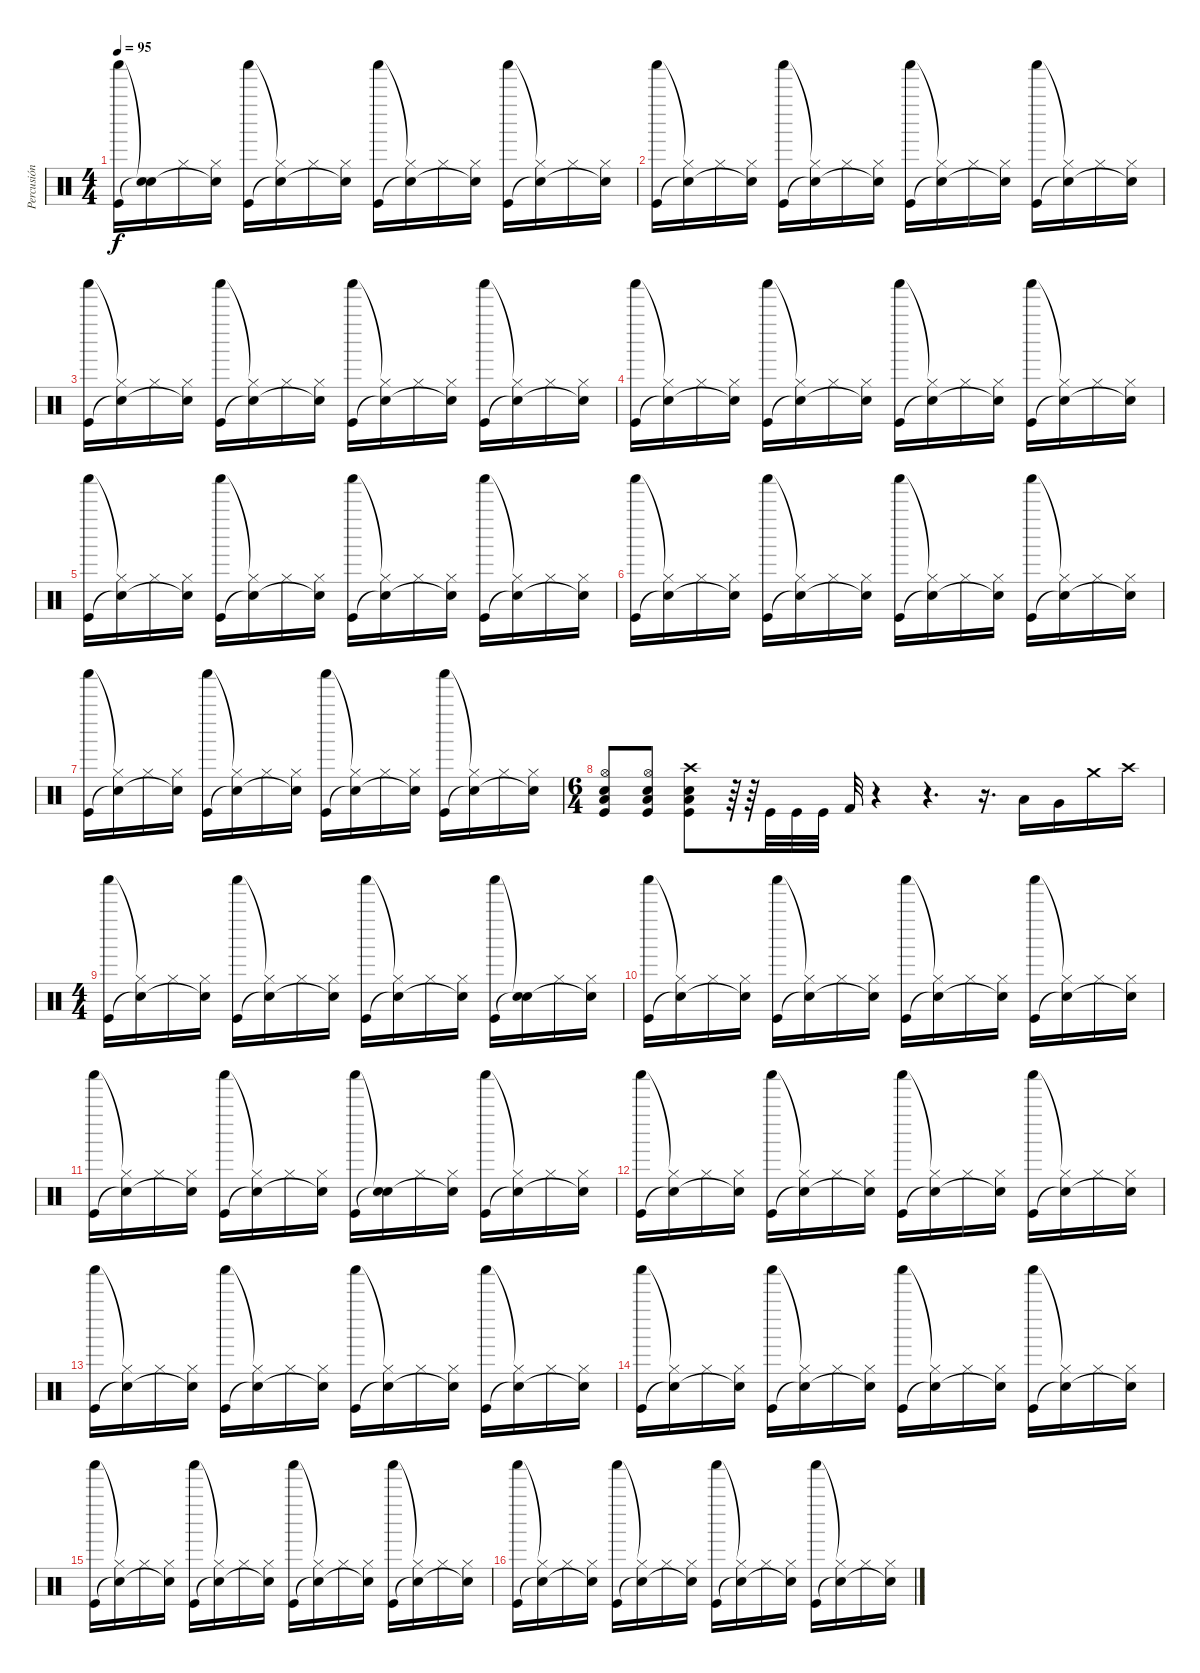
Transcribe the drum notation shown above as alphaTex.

\track ("Percusión" "Percusión") {instrument percussion}
\staff {score}
\articulation defaults
\ts (4 4)
\tempo 95
\clef neutral
\ks c
("Shaker (hit)" "Kick (hit)").16{dy f} ("Snare (hit)"{t} "Snare (hit)"{t}).16 "Hi-Hat (closed)".16 ("Hi-Hat (closed)" "Snare (hit)"{t}).16 ("Shaker (hit)" "Kick (hit)").16 ("Hi-Hat (closed)"{t} "Snare (hit)"{t}).16 "Hi-Hat (closed)".16 ("Hi-Hat (closed)" "Snare (hit)"{t}).16 ("Shaker (hit)" "Kick (hit)").16 ("Hi-Hat (closed)"{t} "Snare (hit)"{t}).16 "Hi-Hat (closed)".16 ("Hi-Hat (closed)" "Snare (hit)"{t}).16 ("Shaker (hit)" "Kick (hit)").16 ("Hi-Hat (closed)"{t} "Snare (hit)"{t}).16 "Hi-Hat (closed)".16 ("Hi-Hat (closed)" "Snare (hit)"{t}).16 |
("Shaker (hit)" "Kick (hit)").16 ("Hi-Hat (closed)"{t} "Snare (hit)"{t}).16 "Hi-Hat (closed)".16 ("Hi-Hat (closed)" "Snare (hit)"{t}).16 ("Shaker (hit)" "Kick (hit)").16 ("Hi-Hat (closed)"{t} "Snare (hit)"{t}).16 "Hi-Hat (closed)".16 ("Hi-Hat (closed)" "Snare (hit)"{t}).16 ("Shaker (hit)" "Kick (hit)").16 ("Hi-Hat (closed)"{t} "Snare (hit)"{t}).16 "Hi-Hat (closed)".16 ("Hi-Hat (closed)" "Snare (hit)"{t}).16 ("Shaker (hit)" "Kick (hit)").16 ("Hi-Hat (closed)"{t} "Snare (hit)"{t}).16 "Hi-Hat (closed)".16 ("Hi-Hat (closed)" "Snare (hit)"{t}).16 |
("Shaker (hit)" "Kick (hit)").16 ("Hi-Hat (closed)"{t} "Snare (hit)"{t}).16 "Hi-Hat (closed)".16 ("Hi-Hat (closed)" "Snare (hit)"{t}).16 ("Shaker (hit)" "Kick (hit)").16 ("Hi-Hat (closed)"{t} "Snare (hit)"{t}).16 "Hi-Hat (closed)".16 ("Hi-Hat (closed)" "Snare (hit)"{t}).16 ("Shaker (hit)" "Kick (hit)").16 ("Hi-Hat (closed)"{t} "Snare (hit)"{t}).16 "Hi-Hat (closed)".16 ("Hi-Hat (closed)" "Snare (hit)"{t}).16 ("Shaker (hit)" "Kick (hit)").16 ("Hi-Hat (closed)"{t} "Snare (hit)"{t}).16 "Hi-Hat (closed)".16 ("Hi-Hat (closed)" "Snare (hit)"{t}).16 |
("Shaker (hit)" "Kick (hit)").16 ("Hi-Hat (closed)"{t} "Snare (hit)"{t}).16 "Hi-Hat (closed)".16 ("Hi-Hat (closed)" "Snare (hit)"{t}).16 ("Shaker (hit)" "Kick (hit)").16 ("Hi-Hat (closed)"{t} "Snare (hit)"{t}).16 "Hi-Hat (closed)".16 ("Hi-Hat (closed)" "Snare (hit)"{t}).16 ("Shaker (hit)" "Kick (hit)").16 ("Hi-Hat (closed)"{t} "Snare (hit)"{t}).16 "Hi-Hat (closed)".16 ("Hi-Hat (closed)" "Snare (hit)"{t}).16 ("Shaker (hit)" "Kick (hit)").16 ("Hi-Hat (closed)"{t} "Snare (hit)"{t}).16 "Hi-Hat (closed)".16 ("Hi-Hat (closed)" "Snare (hit)"{t}).16 |
("Shaker (hit)" "Kick (hit)").16 ("Hi-Hat (closed)"{t} "Snare (hit)"{t}).16 "Hi-Hat (closed)".16 ("Hi-Hat (closed)" "Snare (hit)"{t}).16 ("Shaker (hit)" "Kick (hit)").16 ("Hi-Hat (closed)"{t} "Snare (hit)"{t}).16 "Hi-Hat (closed)".16 ("Hi-Hat (closed)" "Snare (hit)"{t}).16 ("Shaker (hit)" "Kick (hit)").16 ("Hi-Hat (closed)"{t} "Snare (hit)"{t}).16 "Hi-Hat (closed)".16 ("Hi-Hat (closed)" "Snare (hit)"{t}).16 ("Shaker (hit)" "Kick (hit)").16 ("Hi-Hat (closed)"{t} "Snare (hit)"{t}).16 "Hi-Hat (closed)".16 ("Hi-Hat (closed)" "Snare (hit)"{t}).16 |
("Shaker (hit)" "Kick (hit)").16 ("Hi-Hat (closed)"{t} "Snare (hit)"{t}).16 "Hi-Hat (closed)".16 ("Hi-Hat (closed)" "Snare (hit)"{t}).16 ("Shaker (hit)" "Kick (hit)").16 ("Hi-Hat (closed)"{t} "Snare (hit)"{t}).16 "Hi-Hat (closed)".16 ("Hi-Hat (closed)" "Snare (hit)"{t}).16 ("Shaker (hit)" "Kick (hit)").16 ("Hi-Hat (closed)"{t} "Snare (hit)"{t}).16 "Hi-Hat (closed)".16 ("Hi-Hat (closed)" "Snare (hit)"{t}).16 ("Shaker (hit)" "Kick (hit)").16 ("Hi-Hat (closed)"{t} "Snare (hit)"{t}).16 "Hi-Hat (closed)".16 ("Hi-Hat (closed)" "Snare (hit)"{t}).16 |
("Shaker (hit)" "Kick (hit)").16 ("Hi-Hat (closed)"{t} "Snare (hit)"{t}).16 "Hi-Hat (closed)".16 ("Hi-Hat (closed)" "Snare (hit)"{t}).16 ("Shaker (hit)" "Kick (hit)").16 ("Hi-Hat (closed)"{t} "Snare (hit)"{t}).16 "Hi-Hat (closed)".16 ("Hi-Hat (closed)" "Snare (hit)"{t}).16 ("Shaker (hit)" "Kick (hit)").16 ("Hi-Hat (closed)"{t} "Snare (hit)"{t}).16 "Hi-Hat (closed)".16 ("Hi-Hat (closed)" "Snare (hit)"{t}).16 ("Shaker (hit)" "Kick (hit)").16 ("Hi-Hat (closed)"{t} "Snare (hit)"{t}).16 "Hi-Hat (closed)".16 ("Hi-Hat (closed)" "Snare (hit)"{t}).16 |
\ts (6 4)
("Hi-Hat (open)" "Low Tom (hit)" "Snare (hit) 2" "Kick (hit)").8 ("Hi-Hat (open)" "Low Tom (hit)" "Snare (hit) 2" "Kick (hit)").8 ("Crash high (hit)" "Low Tom (hit)" "Snare (hit) 2" "Kick (hit)").8 r.64 r.64 "Kick (hit)".32 "Kick (hit)".32 "Kick (hit)".32 "Kick (hit) 2".32 r.4 r.4{d} r.16{d} "Low Tom (hit)".16 "Very Low Tom (hit)".16 "Crash medium (hit)".16 "Crash high (hit)".16 |
\ts (4 4)
("Shaker (hit)" "Kick (hit)").16 ("Hi-Hat (closed)"{t} "Snare (hit)"{t}).16 "Hi-Hat (closed)".16 ("Hi-Hat (closed)" "Snare (hit)"{t}).16 ("Shaker (hit)" "Kick (hit)").16 ("Hi-Hat (closed)"{t} "Snare (hit)"{t}).16 "Hi-Hat (closed)".16 ("Hi-Hat (closed)" "Snare (hit)"{t}).16 ("Shaker (hit)" "Kick (hit)").16 ("Hi-Hat (closed)"{t} "Snare (hit)"{t}).16 "Hi-Hat (closed)".16 ("Hi-Hat (closed)" "Snare (hit)"{t}).16 ("Shaker (hit)" "Kick (hit)").16 ("Snare (hit)"{t} "Snare (hit)"{t}).16 "Hi-Hat (closed)".16 ("Hi-Hat (closed)" "Snare (hit)"{t}).16 |
("Shaker (hit)" "Kick (hit)").16 ("Hi-Hat (closed)"{t} "Snare (hit)"{t}).16 "Hi-Hat (closed)".16 ("Hi-Hat (closed)" "Snare (hit)"{t}).16 ("Shaker (hit)" "Kick (hit)").16 ("Hi-Hat (closed)"{t} "Snare (hit)"{t}).16 "Hi-Hat (closed)".16 ("Hi-Hat (closed)" "Snare (hit)"{t}).16 ("Shaker (hit)" "Kick (hit)").16 ("Hi-Hat (closed)"{t} "Snare (hit)"{t}).16 "Hi-Hat (closed)".16 ("Hi-Hat (closed)" "Snare (hit)"{t}).16 ("Shaker (hit)" "Kick (hit)").16 ("Hi-Hat (closed)"{t} "Snare (hit)"{t}).16 "Hi-Hat (closed)".16 ("Hi-Hat (closed)" "Snare (hit)"{t}).16 |
("Shaker (hit)" "Kick (hit)").16 ("Hi-Hat (closed)"{t} "Snare (hit)"{t}).16 "Hi-Hat (closed)".16 ("Hi-Hat (closed)" "Snare (hit)"{t}).16 ("Shaker (hit)" "Kick (hit)").16 ("Hi-Hat (closed)"{t} "Snare (hit)"{t}).16 "Hi-Hat (closed)".16 ("Hi-Hat (closed)" "Snare (hit)"{t}).16 ("Shaker (hit)" "Kick (hit)").16 ("Snare (hit)"{t} "Snare (hit)"{t}).16 "Hi-Hat (closed)".16 ("Hi-Hat (closed)" "Snare (hit)"{t}).16 ("Shaker (hit)" "Kick (hit)").16 ("Hi-Hat (closed)"{t} "Snare (hit)"{t}).16 "Hi-Hat (closed)".16 ("Hi-Hat (closed)" "Snare (hit)"{t}).16 |
("Shaker (hit)" "Kick (hit)").16 ("Hi-Hat (closed)"{t} "Snare (hit)"{t}).16 "Hi-Hat (closed)".16 ("Hi-Hat (closed)" "Snare (hit)"{t}).16 ("Shaker (hit)" "Kick (hit)").16 ("Hi-Hat (closed)"{t} "Snare (hit)"{t}).16 "Hi-Hat (closed)".16 ("Hi-Hat (closed)" "Snare (hit)"{t}).16 ("Shaker (hit)" "Kick (hit)").16 ("Hi-Hat (closed)"{t} "Snare (hit)"{t}).16 "Hi-Hat (closed)".16 ("Hi-Hat (closed)" "Snare (hit)"{t}).16 ("Shaker (hit)" "Kick (hit)").16 ("Hi-Hat (closed)"{t} "Snare (hit)"{t}).16 "Hi-Hat (closed)".16 ("Hi-Hat (closed)" "Snare (hit)"{t}).16 |
("Shaker (hit)" "Kick (hit)").16 ("Hi-Hat (closed)"{t} "Snare (hit)"{t}).16 "Hi-Hat (closed)".16 ("Hi-Hat (closed)" "Snare (hit)"{t}).16 ("Shaker (hit)" "Kick (hit)").16 ("Hi-Hat (closed)"{t} "Snare (hit)"{t}).16 "Hi-Hat (closed)".16 ("Hi-Hat (closed)" "Snare (hit)"{t}).16 ("Shaker (hit)" "Kick (hit)").16 ("Hi-Hat (closed)"{t} "Snare (hit)"{t}).16 "Hi-Hat (closed)".16 ("Hi-Hat (closed)" "Snare (hit)"{t}).16 ("Shaker (hit)" "Kick (hit)").16 ("Hi-Hat (closed)"{t} "Snare (hit)"{t}).16 "Hi-Hat (closed)".16 ("Hi-Hat (closed)" "Snare (hit)"{t}).16 |
("Shaker (hit)" "Kick (hit)").16 ("Hi-Hat (closed)"{t} "Snare (hit)"{t}).16 "Hi-Hat (closed)".16 ("Hi-Hat (closed)" "Snare (hit)"{t}).16 ("Shaker (hit)" "Kick (hit)").16 ("Hi-Hat (closed)"{t} "Snare (hit)"{t}).16 "Hi-Hat (closed)".16 ("Hi-Hat (closed)" "Snare (hit)"{t}).16 ("Shaker (hit)" "Kick (hit)").16 ("Hi-Hat (closed)"{t} "Snare (hit)"{t}).16 "Hi-Hat (closed)".16 ("Hi-Hat (closed)" "Snare (hit)"{t}).16 ("Shaker (hit)" "Kick (hit)").16 ("Hi-Hat (closed)"{t} "Snare (hit)"{t}).16 "Hi-Hat (closed)".16 ("Hi-Hat (closed)" "Snare (hit)"{t}).16 |
("Shaker (hit)" "Kick (hit)").16 ("Hi-Hat (closed)"{t} "Snare (hit)"{t}).16 "Hi-Hat (closed)".16 ("Hi-Hat (closed)" "Snare (hit)"{t}).16 ("Shaker (hit)" "Kick (hit)").16 ("Hi-Hat (closed)"{t} "Snare (hit)"{t}).16 "Hi-Hat (closed)".16 ("Hi-Hat (closed)" "Snare (hit)"{t}).16 ("Shaker (hit)" "Kick (hit)").16 ("Hi-Hat (closed)"{t} "Snare (hit)"{t}).16 "Hi-Hat (closed)".16 ("Hi-Hat (closed)" "Snare (hit)"{t}).16 ("Shaker (hit)" "Kick (hit)").16 ("Hi-Hat (closed)"{t} "Snare (hit)"{t}).16 "Hi-Hat (closed)".16 ("Hi-Hat (closed)" "Snare (hit)"{t}).16 |
("Shaker (hit)" "Kick (hit)").16 ("Hi-Hat (closed)"{t} "Snare (hit)"{t}).16 "Hi-Hat (closed)".16 ("Hi-Hat (closed)" "Snare (hit)"{t}).16 ("Shaker (hit)" "Kick (hit)").16 ("Hi-Hat (closed)"{t} "Snare (hit)"{t}).16 "Hi-Hat (closed)".16 ("Hi-Hat (closed)" "Snare (hit)"{t}).16 ("Shaker (hit)" "Kick (hit)").16 ("Hi-Hat (closed)"{t} "Snare (hit)"{t}).16 "Hi-Hat (closed)".16 ("Hi-Hat (closed)" "Snare (hit)"{t}).16 ("Shaker (hit)" "Kick (hit)").16 ("Hi-Hat (closed)"{t} "Snare (hit)"{t}).16 "Hi-Hat (closed)".16 ("Hi-Hat (closed)" "Snare (hit)"{t}).16
